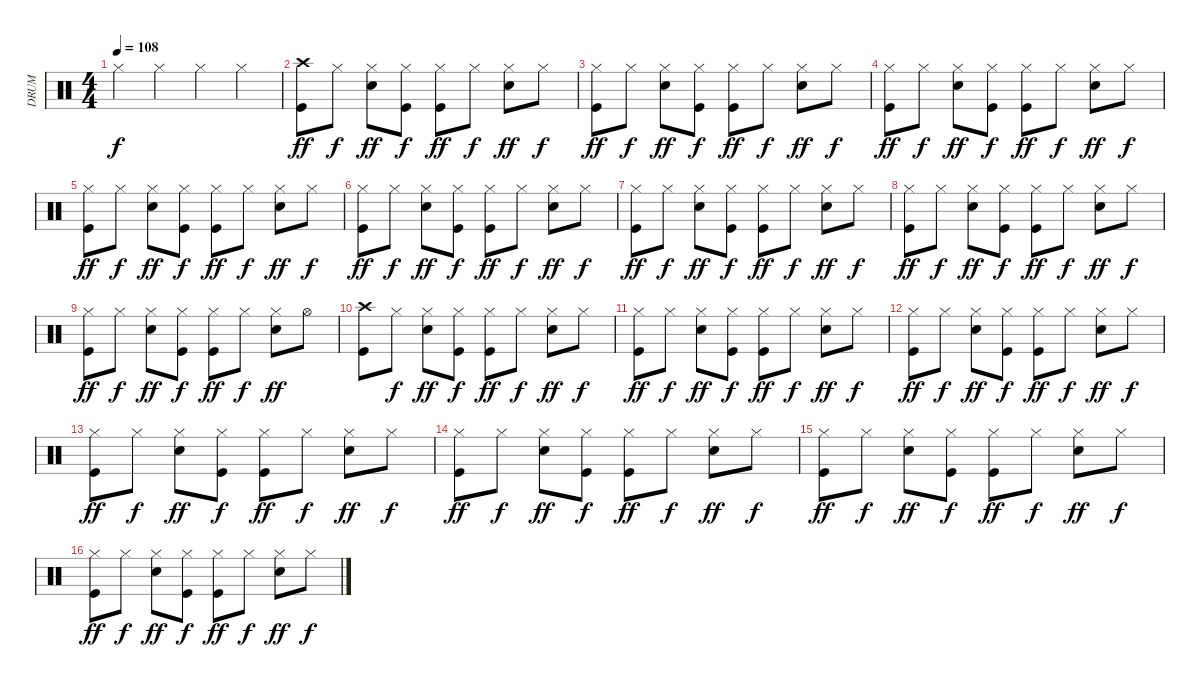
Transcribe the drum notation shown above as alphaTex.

\track ("DRUM" "DRUM") {instrument percussion}
\staff {score}
\articulation defaults
\ts (4 4)
\tempo 108
\clef neutral
\ks c "Hi-Hat (closed)".4{dy f volume 6} "Hi-Hat (closed)".4 "Hi-Hat (closed)".4 "Hi-Hat (closed)".4
|
("Kick (hit)" "Crash high (hit)").8{dy ff} "Hi-Hat (closed)".8{dy f} ("Electric Snare (hit)" "Hi-Hat (closed)").8{dy ff} ("Kick (hit)" "Hi-Hat (closed)").8{dy f} ("Kick (hit)" "Hi-Hat (closed)").8{dy ff} "Hi-Hat (closed)".8{dy f} ("Electric Snare (hit)" "Hi-Hat (closed)").8{dy ff} "Hi-Hat (closed)".8{dy f} |
("Kick (hit)" "Hi-Hat (closed)").8{dy ff} "Hi-Hat (closed)".8{dy f} ("Electric Snare (hit)" "Hi-Hat (closed)").8{dy ff} ("Kick (hit)" "Hi-Hat (closed)").8{dy f} ("Kick (hit)" "Hi-Hat (closed)").8{dy ff} "Hi-Hat (closed)".8{dy f} ("Electric Snare (hit)" "Hi-Hat (closed)").8{dy ff} "Hi-Hat (closed)".8{dy f} |
("Kick (hit)" "Hi-Hat (closed)").8{dy ff} "Hi-Hat (closed)".8{dy f} ("Electric Snare (hit)" "Hi-Hat (closed)").8{dy ff} ("Kick (hit)" "Hi-Hat (closed)").8{dy f} ("Kick (hit)" "Hi-Hat (closed)").8{dy ff} "Hi-Hat (closed)".8{dy f} ("Electric Snare (hit)" "Hi-Hat (closed)").8{dy ff} "Hi-Hat (closed)".8{dy f} |
("Kick (hit)" "Hi-Hat (closed)").8{dy ff} "Hi-Hat (closed)".8{dy f} ("Electric Snare (hit)" "Hi-Hat (closed)").8{dy ff} ("Kick (hit)" "Hi-Hat (closed)").8{dy f} ("Kick (hit)" "Hi-Hat (closed)").8{dy ff} "Hi-Hat (closed)".8{dy f} ("Electric Snare (hit)" "Hi-Hat (closed)").8{dy ff} "Hi-Hat (closed)".8{dy f} |
("Kick (hit)" "Hi-Hat (closed)").8{dy ff} "Hi-Hat (closed)".8{dy f} ("Electric Snare (hit)" "Hi-Hat (closed)").8{dy ff} ("Kick (hit)" "Hi-Hat (closed)").8{dy f} ("Kick (hit)" "Hi-Hat (closed)").8{dy ff} "Hi-Hat (closed)".8{dy f} ("Electric Snare (hit)" "Hi-Hat (closed)").8{dy ff} "Hi-Hat (closed)".8{dy f} |
("Kick (hit)" "Hi-Hat (closed)").8{dy ff} "Hi-Hat (closed)".8{dy f} ("Electric Snare (hit)" "Hi-Hat (closed)").8{dy ff} ("Kick (hit)" "Hi-Hat (closed)").8{dy f} ("Kick (hit)" "Hi-Hat (closed)").8{dy ff} "Hi-Hat (closed)".8{dy f} ("Electric Snare (hit)" "Hi-Hat (closed)").8{dy ff} "Hi-Hat (closed)".8{dy f} |
("Kick (hit)" "Hi-Hat (closed)").8{dy ff} "Hi-Hat (closed)".8{dy f} ("Electric Snare (hit)" "Hi-Hat (closed)").8{dy ff} ("Kick (hit)" "Hi-Hat (closed)").8{dy f} ("Kick (hit)" "Hi-Hat (closed)").8{dy ff} "Hi-Hat (closed)".8{dy f} ("Electric Snare (hit)" "Hi-Hat (closed)").8{dy ff} "Hi-Hat (closed)".8{dy f} |
("Kick (hit)" "Hi-Hat (closed)").8{dy ff} "Hi-Hat (closed)".8{dy f} ("Electric Snare (hit)" "Hi-Hat (closed)").8{dy ff} ("Kick (hit)" "Hi-Hat (closed)").8{dy f} ("Kick (hit)" "Hi-Hat (closed)").8{dy ff} "Hi-Hat (closed)".8{dy f} ("Electric Snare (hit)" "Hi-Hat (closed)").8{dy ff} "Hi-Hat (open)".8 |
("Kick (hit)" "Crash high (hit)").8 "Hi-Hat (closed)".8{dy f} ("Electric Snare (hit)" "Hi-Hat (closed)").8{dy ff} ("Kick (hit)" "Hi-Hat (closed)").8{dy f} ("Kick (hit)" "Hi-Hat (closed)").8{dy ff} "Hi-Hat (closed)".8{dy f} ("Electric Snare (hit)" "Hi-Hat (closed)").8{dy ff} "Hi-Hat (closed)".8{dy f} |
("Kick (hit)" "Hi-Hat (closed)").8{dy ff} "Hi-Hat (closed)".8{dy f} ("Electric Snare (hit)" "Hi-Hat (closed)").8{dy ff} ("Kick (hit)" "Hi-Hat (closed)").8{dy f} ("Kick (hit)" "Hi-Hat (closed)").8{dy ff} "Hi-Hat (closed)".8{dy f} ("Electric Snare (hit)" "Hi-Hat (closed)").8{dy ff} "Hi-Hat (closed)".8{dy f} |
("Kick (hit)" "Hi-Hat (closed)").8{dy ff} "Hi-Hat (closed)".8{dy f} ("Electric Snare (hit)" "Hi-Hat (closed)").8{dy ff} ("Kick (hit)" "Hi-Hat (closed)").8{dy f} ("Kick (hit)" "Hi-Hat (closed)").8{dy ff} "Hi-Hat (closed)".8{dy f} ("Electric Snare (hit)" "Hi-Hat (closed)").8{dy ff} "Hi-Hat (closed)".8{dy f} |
("Kick (hit)" "Hi-Hat (closed)").8{dy ff} "Hi-Hat (closed)".8{dy f} ("Electric Snare (hit)" "Hi-Hat (closed)").8{dy ff} ("Kick (hit)" "Hi-Hat (closed)").8{dy f} ("Kick (hit)" "Hi-Hat (closed)").8{dy ff} "Hi-Hat (closed)".8{dy f} ("Electric Snare (hit)" "Hi-Hat (closed)").8{dy ff} "Hi-Hat (closed)".8{dy f} |
("Kick (hit)" "Hi-Hat (closed)").8{dy ff} "Hi-Hat (closed)".8{dy f} ("Electric Snare (hit)" "Hi-Hat (closed)").8{dy ff} ("Kick (hit)" "Hi-Hat (closed)").8{dy f} ("Kick (hit)" "Hi-Hat (closed)").8{dy ff} "Hi-Hat (closed)".8{dy f} ("Electric Snare (hit)" "Hi-Hat (closed)").8{dy ff} "Hi-Hat (closed)".8{dy f} |
("Kick (hit)" "Hi-Hat (closed)").8{dy ff} "Hi-Hat (closed)".8{dy f} ("Electric Snare (hit)" "Hi-Hat (closed)").8{dy ff} ("Kick (hit)" "Hi-Hat (closed)").8{dy f} ("Kick (hit)" "Hi-Hat (closed)").8{dy ff} "Hi-Hat (closed)".8{dy f} ("Electric Snare (hit)" "Hi-Hat (closed)").8{dy ff} "Hi-Hat (closed)".8{dy f} |
("Kick (hit)" "Hi-Hat (closed)").8{dy ff} "Hi-Hat (closed)".8{dy f} ("Electric Snare (hit)" "Hi-Hat (closed)").8{dy ff} ("Kick (hit)" "Hi-Hat (closed)").8{dy f} ("Kick (hit)" "Hi-Hat (closed)").8{dy ff} "Hi-Hat (closed)".8{dy f} ("Electric Snare (hit)" "Hi-Hat (closed)").8{dy ff} "Hi-Hat (closed)".8{dy f}
